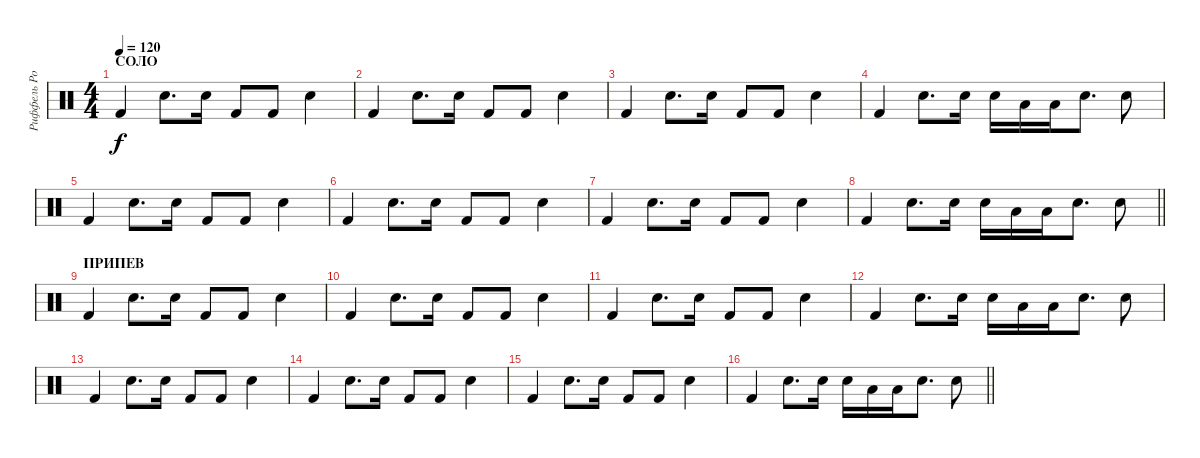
\track ("Риффель Роман(главные)" "Риффель Ро") {instrument percussion}
\staff {score}
\articulation defaults
\ts (4 4)
\section ("" "СОЛО")
\tempo 120
\clef neutral
\ks c "Kick (hit) 2".4{dy f} "Electric Snare (hit)".8{d} "Electric Snare (hit)".16 "Kick (hit) 2".8 "Kick (hit) 2".8 "Electric Snare (hit)".4
|
"Kick (hit) 2".4 "Electric Snare (hit)".8{d} "Electric Snare (hit)".16 "Kick (hit) 2".8 "Kick (hit) 2".8 "Electric Snare (hit)".4 |
"Kick (hit) 2".4 "Electric Snare (hit)".8{d} "Electric Snare (hit)".16 "Kick (hit) 2".8 "Kick (hit) 2".8 "Electric Snare (hit)".4 |
"Kick (hit) 2".4 "Electric Snare (hit)".8{d} "Electric Snare (hit)".16 "Electric Snare (hit)".16 "Low Tom (hit)".16 "Low Tom (hit)".16 "Electric Snare (hit)".8{d} "Electric Snare (hit)".8 |
"Kick (hit) 2".4 "Electric Snare (hit)".8{d} "Electric Snare (hit)".16 "Kick (hit) 2".8 "Kick (hit) 2".8 "Electric Snare (hit)".4 |
"Kick (hit) 2".4 "Electric Snare (hit)".8{d} "Electric Snare (hit)".16 "Kick (hit) 2".8 "Kick (hit) 2".8 "Electric Snare (hit)".4 |
"Kick (hit) 2".4 "Electric Snare (hit)".8{d} "Electric Snare (hit)".16 "Kick (hit) 2".8 "Kick (hit) 2".8 "Electric Snare (hit)".4 |
\barLineRight lightlight "Kick (hit) 2".4 "Electric Snare (hit)".8{d} "Electric Snare (hit)".16 "Electric Snare (hit)".16 "Low Tom (hit)".16 "Low Tom (hit)".16 "Electric Snare (hit)".8{d} "Electric Snare (hit)".8
|
\section ("" "ПРИПЕВ")
"Kick (hit) 2".4 "Electric Snare (hit)".8{d} "Electric Snare (hit)".16 "Kick (hit) 2".8 "Kick (hit) 2".8 "Electric Snare (hit)".4 |
"Kick (hit) 2".4 "Electric Snare (hit)".8{d} "Electric Snare (hit)".16 "Kick (hit) 2".8 "Kick (hit) 2".8 "Electric Snare (hit)".4 |
"Kick (hit) 2".4 "Electric Snare (hit)".8{d} "Electric Snare (hit)".16 "Kick (hit) 2".8 "Kick (hit) 2".8 "Electric Snare (hit)".4 |
"Kick (hit) 2".4 "Electric Snare (hit)".8{d} "Electric Snare (hit)".16 "Electric Snare (hit)".16 "Low Tom (hit)".16 "Low Tom (hit)".16 "Electric Snare (hit)".8{d} "Electric Snare (hit)".8 |
"Kick (hit) 2".4 "Electric Snare (hit)".8{d} "Electric Snare (hit)".16 "Kick (hit) 2".8 "Kick (hit) 2".8 "Electric Snare (hit)".4 |
"Kick (hit) 2".4 "Electric Snare (hit)".8{d} "Electric Snare (hit)".16 "Kick (hit) 2".8 "Kick (hit) 2".8 "Electric Snare (hit)".4 |
"Kick (hit) 2".4 "Electric Snare (hit)".8{d} "Electric Snare (hit)".16 "Kick (hit) 2".8 "Kick (hit) 2".8 "Electric Snare (hit)".4 |
\barLineRight lightlight "Kick (hit) 2".4 "Electric Snare (hit)".8{d} "Electric Snare (hit)".16 "Electric Snare (hit)".16 "Low Tom (hit)".16 "Low Tom (hit)".16 "Electric Snare (hit)".8{d} "Electric Snare (hit)".8
